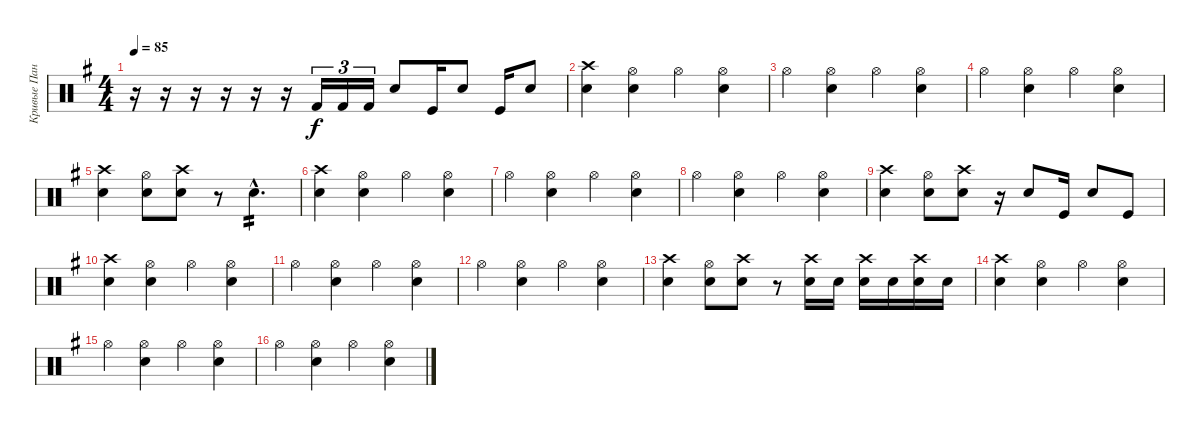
\track ("Кривые Панковские Ударки (CPU)" "Кривые Пан") {instrument percussion}
\staff {score}
\articulation defaults
\ts (4 4)
\tempo 85
\clef neutral
\ks eminor
r.16{dy f} r.16 r.16 r.16 r.16 r.16 "Kick (hit) 2".16{tu (3 2)} "Kick (hit) 2".16{tu (3 2)} "Kick (hit) 2".16{tu (3 2)} "Snare (hit) 2".8 "Kick (hit)".16 "Snare (hit) 2".8 "Kick (hit)".16 "Snare (hit) 2".8 |
("Snare (hit) 2" "Crash high (hit)").4 ("Hi-Hat (open)" "Snare (hit) 2").4 "Hi-Hat (open)".4 ("Hi-Hat (open)" "Snare (hit) 2").4 |
"Hi-Hat (open)".4 ("Hi-Hat (open)" "Snare (hit) 2").4 "Hi-Hat (open)".4 ("Hi-Hat (open)" "Snare (hit) 2").4 |
"Hi-Hat (open)".4 ("Hi-Hat (open)" "Snare (hit) 2").4 "Hi-Hat (open)".4 ("Hi-Hat (open)" "Snare (hit) 2").4 |
("Snare (hit) 2" "Crash high (hit)").4 ("Hi-Hat (open)" "Snare (hit) 2").8 ("Snare (hit) 2" "Crash high (hit)").8 r.8 "Snare (hit) 2"{hac}.4{d tp 2} |
("Snare (hit) 2" "Crash high (hit)").4 ("Hi-Hat (open)" "Snare (hit) 2").4 "Hi-Hat (open)".4 ("Hi-Hat (open)" "Snare (hit) 2").4 |
"Hi-Hat (open)".4 ("Hi-Hat (open)" "Snare (hit) 2").4 "Hi-Hat (open)".4 ("Hi-Hat (open)" "Snare (hit) 2").4 |
"Hi-Hat (open)".4 ("Hi-Hat (open)" "Snare (hit) 2").4 "Hi-Hat (open)".4 ("Hi-Hat (open)" "Snare (hit) 2").4 |
("Snare (hit) 2" "Crash high (hit)").4 ("Hi-Hat (open)" "Snare (hit) 2").8 ("Snare (hit) 2" "Crash high (hit)").8 r.16 "Snare (hit) 2".8 "Kick (hit)".16 "Snare (hit) 2".8 "Kick (hit)".8 |
("Snare (hit) 2" "Crash high (hit)").4 ("Hi-Hat (open)" "Snare (hit) 2").4 "Hi-Hat (open)".4 ("Hi-Hat (open)" "Snare (hit) 2").4 |
"Hi-Hat (open)".4 ("Hi-Hat (open)" "Snare (hit) 2").4 "Hi-Hat (open)".4 ("Hi-Hat (open)" "Snare (hit) 2").4 |
"Hi-Hat (open)".4 ("Hi-Hat (open)" "Snare (hit) 2").4 "Hi-Hat (open)".4 ("Hi-Hat (open)" "Snare (hit) 2").4 |
("Snare (hit) 2" "Crash high (hit)").4 ("Hi-Hat (open)" "Snare (hit) 2").8 ("Snare (hit) 2" "Crash high (hit)").8 r.8 ("Crash high (hit)" "Snare (hit) 2").16 "Snare (hit) 2".16 ("Crash high (hit)" "Snare (hit) 2").16 "Snare (hit) 2".16 ("Crash high (hit)" "Snare (hit) 2").16 "Snare (hit) 2".16 |
("Snare (hit) 2" "Crash high (hit)").4 ("Hi-Hat (open)" "Snare (hit) 2").4 "Hi-Hat (open)".4 ("Hi-Hat (open)" "Snare (hit) 2").4 |
"Hi-Hat (open)".4 ("Hi-Hat (open)" "Snare (hit) 2").4 "Hi-Hat (open)".4 ("Hi-Hat (open)" "Snare (hit) 2").4 |
"Hi-Hat (open)".4 ("Hi-Hat (open)" "Snare (hit) 2").4 "Hi-Hat (open)".4 ("Hi-Hat (open)" "Snare (hit) 2").4
